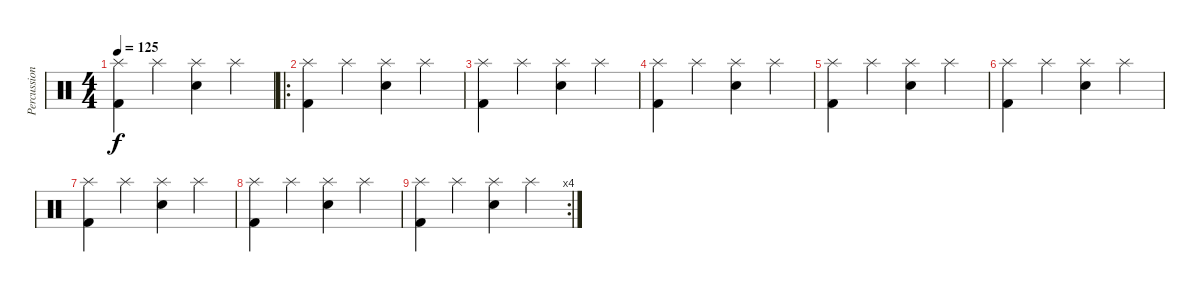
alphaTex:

\track ("Percussions" "Percussion") {instrument percussion}
\staff {score}
\articulation defaults
\ts (4 4)
\tempo 125
\clef neutral
\ks c
("Splash (hit)" "Kick (hit) 2").4{dy f} "Splash (hit)".4 ("Splash (hit)" "Electric Snare (hit)").4 "Splash (hit)".4 |
\ro
("Splash (hit)" "Kick (hit) 2").4 "Splash (hit)".4 ("Splash (hit)" "Electric Snare (hit)").4 "Splash (hit)".4 |
("Splash (hit)" "Kick (hit) 2").4 "Splash (hit)".4 ("Splash (hit)" "Electric Snare (hit)").4 "Splash (hit)".4 |
("Splash (hit)" "Kick (hit) 2").4 "Splash (hit)".4 ("Splash (hit)" "Electric Snare (hit)").4 "Splash (hit)".4 |
("Splash (hit)" "Kick (hit) 2").4 "Splash (hit)".4 ("Splash (hit)" "Electric Snare (hit)").4 "Splash (hit)".4 |
("Splash (hit)" "Kick (hit) 2").4 "Splash (hit)".4 ("Splash (hit)" "Electric Snare (hit)").4 "Splash (hit)".4 |
("Splash (hit)" "Kick (hit) 2").4 "Splash (hit)".4 ("Splash (hit)" "Electric Snare (hit)").4 "Splash (hit)".4 |
("Splash (hit)" "Kick (hit) 2").4 "Splash (hit)".4 ("Splash (hit)" "Electric Snare (hit)").4 "Splash (hit)".4 |
\rc 4
("Splash (hit)" "Kick (hit) 2").4 "Splash (hit)".4 ("Splash (hit)" "Electric Snare (hit)").4 "Splash (hit)".4
